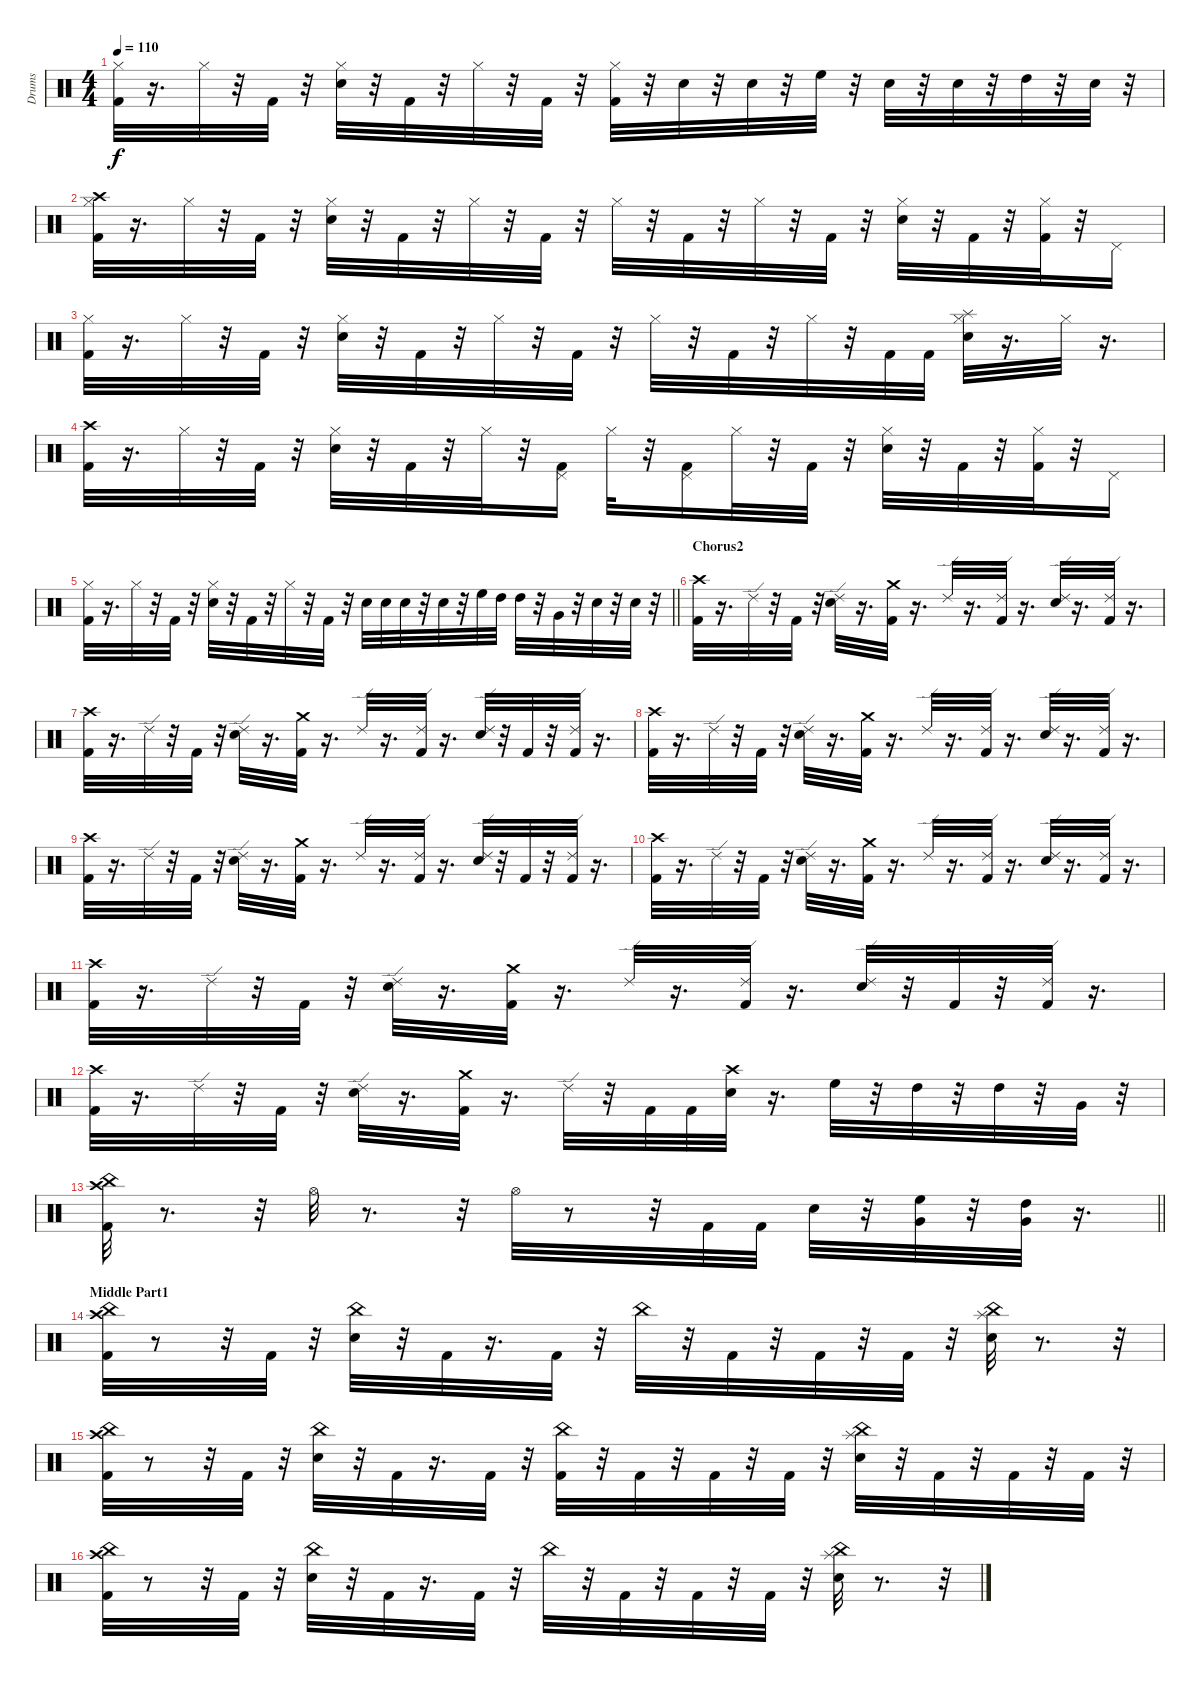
\track ("Drums" "Drums") {instrument percussion}
\staff {score}
\articulation defaults
\ts (4 4)
\tempo 110
\clef neutral
\ks c
("Kick (hit) 2" "Hi-Hat (closed)").32{dy f} r.16{d} "Hi-Hat (closed)".32 r.32 "Kick (hit) 2".32 r.32 ("Snare (hit) 2" "Hi-Hat (closed)").32 r.32 "Kick (hit) 2".32 r.32 "Hi-Hat (closed)".32 r.32 "Kick (hit) 2".32 r.32 ("Kick (hit) 2" "Hi-Hat (closed)").32 r.32 "Snare (hit) 2".32 r.32 "Snare (hit) 2".32 r.32 "High Floor Tom (hit)".32 r.32 "Snare (hit) 2".32 r.32 "Snare (hit) 2".32 r.32 "High Tom (hit)".32 r.32 "Snare (hit) 2".32 r.32 |
("Kick (hit) 2" "Hi-Hat (closed)" "Crash high (hit)").32 r.16{d} "Hi-Hat (closed)".32 r.32 "Kick (hit) 2".32 r.32 ("Snare (hit) 2" "Hi-Hat (closed)").32 r.32 "Kick (hit) 2".32 r.32 "Hi-Hat (closed)".32 r.32 "Kick (hit) 2".32 r.32 "Hi-Hat (closed)".32 r.32 "Kick (hit) 2".32 r.32 "Hi-Hat (closed)".32 r.32 "Kick (hit) 2".32 r.32 ("Snare (hit) 2" "Hi-Hat (closed)").32 r.32 "Kick (hit) 2".32 r.32 ("Kick (hit) 2" "Hi-Hat (closed)").32 r.32 "Pedal Hi-Hat (hit)".16 |
("Kick (hit) 2" "Hi-Hat (closed)").32 r.16{d} "Hi-Hat (closed)".32 r.32 "Kick (hit) 2".32 r.32 ("Snare (hit) 2" "Hi-Hat (closed)").32 r.32 "Kick (hit) 2".32 r.32 "Hi-Hat (closed)".32 r.32 "Kick (hit) 2".32 r.32 "Hi-Hat (closed)".32 r.32 "Kick (hit) 2".32 r.32 "Hi-Hat (closed)".32 r.32 "Kick (hit) 2".32 "Kick (hit) 2".32 ("Snare (hit) 2" "Hi-Hat (closed)" "Splash (hit)").32 r.16{d} "Hi-Hat (closed)".32 r.16{d} |
("Kick (hit) 2" "Crash high (hit)").32 r.16{d} "Hi-Hat (closed)".32 r.32 "Kick (hit) 2".32 r.32 ("Snare (hit) 2" "Hi-Hat (closed)").32 r.32 "Kick (hit) 2".32 r.32 "Hi-Hat (closed)".32 r.32 ("Kick (hit) 2" "Pedal Hi-Hat (hit)").16 "Hi-Hat (closed)".32 r.32 ("Kick (hit) 2" "Pedal Hi-Hat (hit)").16 "Hi-Hat (closed)".32 r.32 "Kick (hit) 2".32 r.32 ("Snare (hit) 2" "Hi-Hat (closed)").32 r.32 "Kick (hit) 2".32 r.32 ("Kick (hit) 2" "Hi-Hat (closed)").32 r.32 "Pedal Hi-Hat (hit)".16 |
\barLineRight lightlight
("Kick (hit) 2" "Hi-Hat (closed)").32 r.16{d} "Hi-Hat (closed)".32 r.32 "Kick (hit) 2".32 r.32 ("Snare (hit) 2" "Hi-Hat (closed)").32 r.32 "Kick (hit) 2".32 r.32 "Hi-Hat (closed)".32 r.32 "Kick (hit) 2".32 r.32 "Snare (hit) 2".32 "Snare (hit) 2".32 "Snare (hit) 2".32 r.32 "Snare (hit) 2".32 r.32 "High Floor Tom (hit)".32 "High Tom (hit)".32 "High Tom (hit)".32 r.32 "Very Low Tom (hit)".32 r.32 "Snare (hit) 2".32 r.32 "Snare (hit) 2".32 r.32 |
\section ("" "Chorus2")
("Kick (hit) 2" "Crash high (hit)").32 r.16{d} "Ride (edge) 2".32 r.32 "Kick (hit) 2".32 r.32 ("Snare (hit) 2" "Ride (edge) 2").32 r.16{d} ("Kick (hit) 2" "Crash medium (hit)").32 r.16{d} "Ride (edge) 2".32 r.16{d} ("Kick (hit) 2" "Ride (edge) 2").32 r.16{d} ("Snare (hit) 2" "Ride (edge) 2").32 r.16{d} ("Kick (hit) 2" "Ride (edge) 2").32 r.16{d} |
("Kick (hit) 2" "Crash high (hit)").32 r.16{d} "Ride (edge) 2".32 r.32 "Kick (hit) 2".32 r.32 ("Snare (hit) 2" "Ride (edge) 2").32 r.16{d} ("Kick (hit) 2" "Crash medium (hit)").32 r.16{d} "Ride (edge) 2".32 r.16{d} ("Kick (hit) 2" "Ride (edge) 2").32 r.16{d} ("Snare (hit) 2" "Ride (edge) 2").32 r.32 "Kick (hit) 2".32 r.32 ("Kick (hit) 2" "Ride (edge) 2").32 r.16{d} |
("Kick (hit) 2" "Crash high (hit)").32 r.16{d} "Ride (edge) 2".32 r.32 "Kick (hit) 2".32 r.32 ("Snare (hit) 2" "Ride (edge) 2").32 r.16{d} ("Kick (hit) 2" "Crash medium (hit)").32 r.16{d} "Ride (edge) 2".32 r.16{d} ("Kick (hit) 2" "Ride (edge) 2").32 r.16{d} ("Snare (hit) 2" "Ride (edge) 2").32 r.16{d} ("Kick (hit) 2" "Ride (edge) 2").32 r.16{d} |
("Kick (hit) 2" "Crash high (hit)").32 r.16{d} "Ride (edge) 2".32 r.32 "Kick (hit) 2".32 r.32 ("Snare (hit) 2" "Ride (edge) 2").32 r.16{d} ("Kick (hit) 2" "Crash medium (hit)").32 r.16{d} "Ride (edge) 2".32 r.16{d} ("Kick (hit) 2" "Ride (edge) 2").32 r.16{d} ("Snare (hit) 2" "Ride (edge) 2").32 r.32 "Kick (hit) 2".32 r.32 ("Kick (hit) 2" "Ride (edge) 2").32 r.16{d} |
("Kick (hit) 2" "Crash high (hit)").32 r.16{d} "Ride (edge) 2".32 r.32 "Kick (hit) 2".32 r.32 ("Snare (hit) 2" "Ride (edge) 2").32 r.16{d} ("Kick (hit) 2" "Crash medium (hit)").32 r.16{d} "Ride (edge) 2".32 r.16{d} ("Kick (hit) 2" "Ride (edge) 2").32 r.16{d} ("Snare (hit) 2" "Ride (edge) 2").32 r.16{d} ("Kick (hit) 2" "Ride (edge) 2").32 r.16{d} |
("Kick (hit) 2" "Crash high (hit)").32 r.16{d} "Ride (edge) 2".32 r.32 "Kick (hit) 2".32 r.32 ("Snare (hit) 2" "Ride (edge) 2").32 r.16{d} ("Kick (hit) 2" "Crash medium (hit)").32 r.16{d} "Ride (edge) 2".32 r.16{d} ("Kick (hit) 2" "Ride (edge) 2").32 r.16{d} ("Snare (hit) 2" "Ride (edge) 2").32 r.32 "Kick (hit) 2".32 r.32 ("Kick (hit) 2" "Ride (edge) 2").32 r.16{d} |
("Kick (hit) 2" "Crash high (hit)").32 r.16{d} "Ride (edge) 2".32 r.32 "Kick (hit) 2".32 r.32 ("Snare (hit) 2" "Ride (edge) 2").32 r.16{d} ("Kick (hit) 2" "Crash medium (hit)").32 r.16{d} "Ride (edge) 2".32 r.32 "Kick (hit) 2".32 "Kick (hit) 2".32 ("Snare (hit) 2" "Crash high (hit)").32 r.16{d} "High Floor Tom (hit)".32 r.32 "High Tom (hit)".32 r.32 "High Tom (hit)".32 r.32 "Very Low Tom (hit)".32 r.32 |
\barLineRight lightlight
("Kick (hit) 2" "Crash high (hit)" "China (hit)").32 r.8{d} r.32 "Hi-Hat (open)".32 r.8{d} r.32 "Hi-Hat (open)".32 r.8 r.32 "Kick (hit) 2".32 "Kick (hit) 2".32 "Snare (hit) 2".32 r.32 ("Very Low Tom (hit)" "High Floor Tom (hit)").32 r.32 ("Very Low Tom (hit)" "High Tom (hit)").32 r.16{d} |
\section ("" "Middle Part1")
("Kick (hit) 2" "Crash high (hit)" "China (hit)").32 r.8 r.32 "Kick (hit) 2".32 r.32 ("Snare (hit) 2" "China (hit)").32 r.32 "Kick (hit) 2".32 r.16{d} "Kick (hit) 2".32 r.32 "China (hit)".32 r.32 "Kick (hit) 2".32 r.32 "Kick (hit) 2".32 r.32 "Kick (hit) 2".32 r.32 ("Snare (hit) 2" "China (hit)" "Splash (hit)").32 r.8{d} r.32 |
("Kick (hit) 2" "Crash high (hit)" "China (hit)").32 r.8 r.32 "Kick (hit) 2".32 r.32 ("Snare (hit) 2" "China (hit)").32 r.32 "Kick (hit) 2".32 r.16{d} "Kick (hit) 2".32 r.32 ("Kick (hit) 2" "China (hit)").32 r.32 "Kick (hit) 2".32 r.32 "Kick (hit) 2".32 r.32 "Kick (hit) 2".32 r.32 ("Snare (hit) 2" "China (hit)" "Splash (hit)").32 r.32 "Kick (hit) 2".32 r.32 "Kick (hit) 2".32 r.32 "Kick (hit) 2".32 r.32 |
("Kick (hit) 2" "Crash high (hit)" "China (hit)").32 r.8 r.32 "Kick (hit) 2".32 r.32 ("Snare (hit) 2" "China (hit)").32 r.32 "Kick (hit) 2".32 r.16{d} "Kick (hit) 2".32 r.32 "China (hit)".32 r.32 "Kick (hit) 2".32 r.32 "Kick (hit) 2".32 r.32 "Kick (hit) 2".32 r.32 ("Snare (hit) 2" "China (hit)" "Splash (hit)").32 r.8{d} r.32
